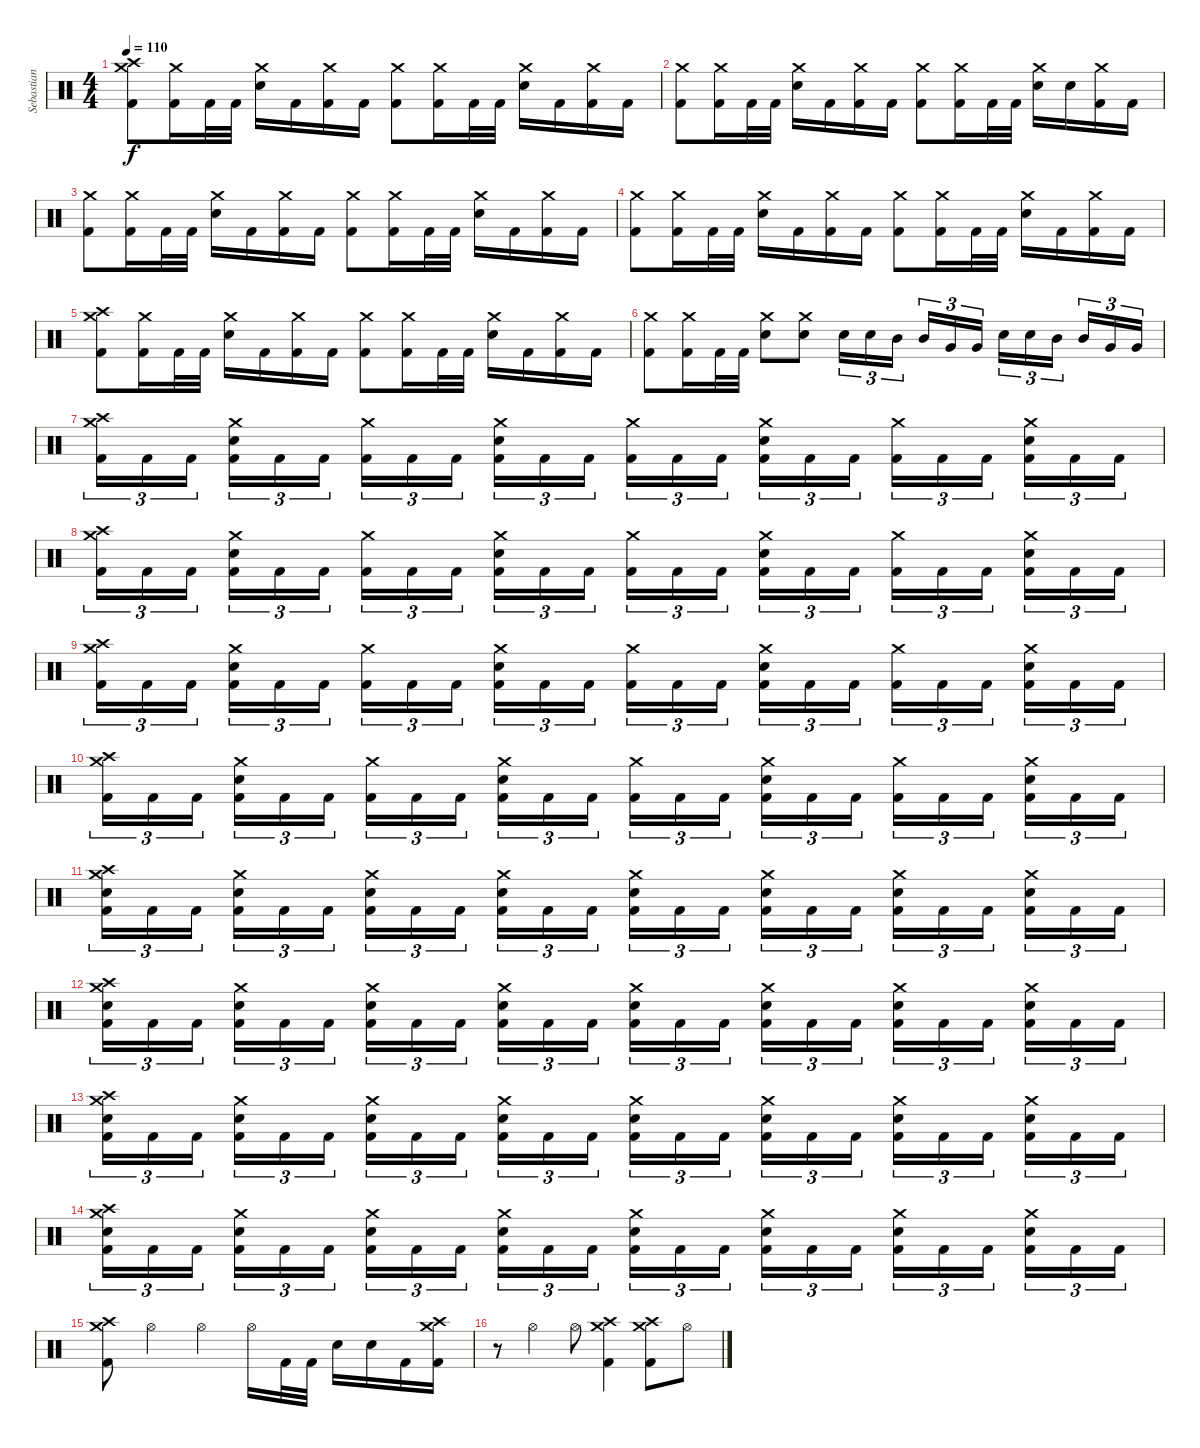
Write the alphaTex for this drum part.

\track ("Sebastian H." "Sebastian ") {instrument percussion}
\staff {score}
\articulation defaults
\ts (4 4)
\tempo 110
\clef neutral
\ks c
("Crash medium (hit)" "Crash high (hit)" "Kick (hit) 2").8{dy f} ("Crash medium (hit)" "Kick (hit) 2").16 "Kick (hit) 2".32 "Kick (hit) 2".32 ("Crash medium (hit)" "Electric Snare (hit)").16 "Kick (hit) 2".16 ("Crash medium (hit)" "Kick (hit) 2").16 "Kick (hit) 2".16 ("Crash medium (hit)" "Kick (hit) 2").8 ("Crash medium (hit)" "Kick (hit) 2").16 "Kick (hit) 2".32 "Kick (hit) 2".32 ("Crash medium (hit)" "Electric Snare (hit)").16 "Kick (hit) 2".16 ("Crash medium (hit)" "Kick (hit) 2").16 "Kick (hit) 2".16 |
("Crash medium (hit)" "Kick (hit) 2").8 ("Crash medium (hit)" "Kick (hit) 2").16 "Kick (hit) 2".32 "Kick (hit) 2".32 ("Crash medium (hit)" "Electric Snare (hit)").16 "Kick (hit) 2".16 ("Crash medium (hit)" "Kick (hit) 2").16 "Kick (hit) 2".16 ("Crash medium (hit)" "Kick (hit) 2").8 ("Crash medium (hit)" "Kick (hit) 2").16 "Kick (hit) 2".32 "Kick (hit) 2".32 ("Crash medium (hit)" "Electric Snare (hit)").16 "Electric Snare (hit)".16 ("Crash medium (hit)" "Kick (hit) 2").16 "Kick (hit) 2".16 |
("Crash medium (hit)" "Kick (hit) 2").8 ("Crash medium (hit)" "Kick (hit) 2").16 "Kick (hit) 2".32 "Kick (hit) 2".32 ("Crash medium (hit)" "Electric Snare (hit)").16 "Kick (hit) 2".16 ("Crash medium (hit)" "Kick (hit) 2").16 "Kick (hit) 2".16 ("Crash medium (hit)" "Kick (hit) 2").8 ("Crash medium (hit)" "Kick (hit) 2").16 "Kick (hit) 2".32 "Kick (hit) 2".32 ("Crash medium (hit)" "Electric Snare (hit)").16 "Kick (hit) 2".16 ("Crash medium (hit)" "Kick (hit) 2").16 "Kick (hit) 2".16 |
("Crash medium (hit)" "Kick (hit) 2").8 ("Crash medium (hit)" "Kick (hit) 2").16 "Kick (hit) 2".32 "Kick (hit) 2".32 ("Crash medium (hit)" "Electric Snare (hit)").16 "Kick (hit) 2".16 ("Crash medium (hit)" "Kick (hit) 2").16 "Kick (hit) 2".16 ("Crash medium (hit)" "Kick (hit) 2").8 ("Crash medium (hit)" "Kick (hit) 2").16 "Kick (hit) 2".32 "Kick (hit) 2".32 ("Crash medium (hit)" "Electric Snare (hit)").16 "Kick (hit) 2".16 ("Crash medium (hit)" "Kick (hit) 2").16 "Kick (hit) 2".16 |
("Crash medium (hit)" "Crash high (hit)" "Kick (hit) 2").8 ("Crash medium (hit)" "Kick (hit) 2").16 "Kick (hit) 2".32 "Kick (hit) 2".32 ("Crash medium (hit)" "Electric Snare (hit)").16 "Kick (hit) 2".16 ("Crash medium (hit)" "Kick (hit) 2").16 "Kick (hit) 2".16 ("Crash medium (hit)" "Kick (hit) 2").8 ("Crash medium (hit)" "Kick (hit) 2").16 "Kick (hit) 2".32 "Kick (hit) 2".32 ("Crash medium (hit)" "Electric Snare (hit)").16 "Kick (hit) 2".16 ("Crash medium (hit)" "Kick (hit) 2").16 "Kick (hit) 2".16 |
("Crash medium (hit)" "Kick (hit) 2").8 ("Crash medium (hit)" "Kick (hit) 2").16 "Kick (hit) 2".32 "Kick (hit) 2".32 ("Crash medium (hit)" "Electric Snare (hit)").8 ("Crash medium (hit)" "Electric Snare (hit)").8 "Electric Snare (hit)".16{tu (3 2)} "Electric Snare (hit)".16{tu (3 2)} "Mid Tom (hit)".16{tu (3 2) beam splitsecondary} "Mid Tom (hit)".16{tu (3 2)} "Very Low Tom (hit)".16{tu (3 2)} "Very Low Tom (hit)".16{tu (3 2)} "Electric Snare (hit)".16{tu (3 2)} "Electric Snare (hit)".16{tu (3 2)} "Mid Tom (hit)".16{tu (3 2) beam splitsecondary} "Mid Tom (hit)".16{tu (3 2)} "Very Low Tom (hit)".16{tu (3 2)} "Very Low Tom (hit)".16{tu (3 2)} |
("Kick (hit) 2" "Crash medium (hit)" "Crash high (hit)").16{tu (3 2)} "Kick (hit) 2".16{tu (3 2)} "Kick (hit) 2".16{tu (3 2) beam splitsecondary} ("Electric Snare (hit)" "Kick (hit) 2" "Crash medium (hit)").16{tu (3 2)} "Kick (hit) 2".16{tu (3 2)} "Kick (hit) 2".16{tu (3 2)} ("Kick (hit) 2" "Crash medium (hit)").16{tu (3 2)} "Kick (hit) 2".16{tu (3 2)} "Kick (hit) 2".16{tu (3 2) beam splitsecondary} ("Electric Snare (hit)" "Kick (hit) 2" "Crash medium (hit)").16{tu (3 2)} "Kick (hit) 2".16{tu (3 2)} "Kick (hit) 2".16{tu (3 2)} ("Kick (hit) 2" "Crash medium (hit)").16{tu (3 2)} "Kick (hit) 2".16{tu (3 2)} "Kick (hit) 2".16{tu (3 2) beam splitsecondary} ("Electric Snare (hit)" "Kick (hit) 2" "Crash medium (hit)").16{tu (3 2)} "Kick (hit) 2".16{tu (3 2)} "Kick (hit) 2".16{tu (3 2)} ("Kick (hit) 2" "Crash medium (hit)").16{tu (3 2)} "Kick (hit) 2".16{tu (3 2)} "Kick (hit) 2".16{tu (3 2) beam splitsecondary} ("Electric Snare (hit)" "Kick (hit) 2" "Crash medium (hit)").16{tu (3 2)} "Kick (hit) 2".16{tu (3 2)} "Kick (hit) 2".16{tu (3 2)} |
("Kick (hit) 2" "Crash medium (hit)" "Crash high (hit)").16{tu (3 2)} "Kick (hit) 2".16{tu (3 2)} "Kick (hit) 2".16{tu (3 2) beam splitsecondary} ("Electric Snare (hit)" "Kick (hit) 2" "Crash medium (hit)").16{tu (3 2)} "Kick (hit) 2".16{tu (3 2)} "Kick (hit) 2".16{tu (3 2)} ("Kick (hit) 2" "Crash medium (hit)").16{tu (3 2)} "Kick (hit) 2".16{tu (3 2)} "Kick (hit) 2".16{tu (3 2) beam splitsecondary} ("Electric Snare (hit)" "Kick (hit) 2" "Crash medium (hit)").16{tu (3 2)} "Kick (hit) 2".16{tu (3 2)} "Kick (hit) 2".16{tu (3 2)} ("Kick (hit) 2" "Crash medium (hit)").16{tu (3 2)} "Kick (hit) 2".16{tu (3 2)} "Kick (hit) 2".16{tu (3 2) beam splitsecondary} ("Electric Snare (hit)" "Kick (hit) 2" "Crash medium (hit)").16{tu (3 2)} "Kick (hit) 2".16{tu (3 2)} "Kick (hit) 2".16{tu (3 2)} ("Kick (hit) 2" "Crash medium (hit)").16{tu (3 2)} "Kick (hit) 2".16{tu (3 2)} "Kick (hit) 2".16{tu (3 2) beam splitsecondary} ("Electric Snare (hit)" "Kick (hit) 2" "Crash medium (hit)").16{tu (3 2)} "Kick (hit) 2".16{tu (3 2)} "Kick (hit) 2".16{tu (3 2)} |
("Kick (hit) 2" "Crash medium (hit)" "Crash high (hit)").16{tu (3 2)} "Kick (hit) 2".16{tu (3 2)} "Kick (hit) 2".16{tu (3 2) beam splitsecondary} ("Electric Snare (hit)" "Kick (hit) 2" "Crash medium (hit)").16{tu (3 2)} "Kick (hit) 2".16{tu (3 2)} "Kick (hit) 2".16{tu (3 2)} ("Kick (hit) 2" "Crash medium (hit)").16{tu (3 2)} "Kick (hit) 2".16{tu (3 2)} "Kick (hit) 2".16{tu (3 2) beam splitsecondary} ("Electric Snare (hit)" "Kick (hit) 2" "Crash medium (hit)").16{tu (3 2)} "Kick (hit) 2".16{tu (3 2)} "Kick (hit) 2".16{tu (3 2)} ("Kick (hit) 2" "Crash medium (hit)").16{tu (3 2)} "Kick (hit) 2".16{tu (3 2)} "Kick (hit) 2".16{tu (3 2) beam splitsecondary} ("Electric Snare (hit)" "Kick (hit) 2" "Crash medium (hit)").16{tu (3 2)} "Kick (hit) 2".16{tu (3 2)} "Kick (hit) 2".16{tu (3 2)} ("Kick (hit) 2" "Crash medium (hit)").16{tu (3 2)} "Kick (hit) 2".16{tu (3 2)} "Kick (hit) 2".16{tu (3 2) beam splitsecondary} ("Electric Snare (hit)" "Kick (hit) 2" "Crash medium (hit)").16{tu (3 2)} "Kick (hit) 2".16{tu (3 2)} "Kick (hit) 2".16{tu (3 2)} |
("Kick (hit) 2" "Crash medium (hit)" "Crash high (hit)").16{tu (3 2)} "Kick (hit) 2".16{tu (3 2)} "Kick (hit) 2".16{tu (3 2) beam splitsecondary} ("Electric Snare (hit)" "Kick (hit) 2" "Crash medium (hit)").16{tu (3 2)} "Kick (hit) 2".16{tu (3 2)} "Kick (hit) 2".16{tu (3 2)} ("Kick (hit) 2" "Crash medium (hit)").16{tu (3 2)} "Kick (hit) 2".16{tu (3 2)} "Kick (hit) 2".16{tu (3 2) beam splitsecondary} ("Electric Snare (hit)" "Kick (hit) 2" "Crash medium (hit)").16{tu (3 2)} "Kick (hit) 2".16{tu (3 2)} "Kick (hit) 2".16{tu (3 2)} ("Kick (hit) 2" "Crash medium (hit)").16{tu (3 2)} "Kick (hit) 2".16{tu (3 2)} "Kick (hit) 2".16{tu (3 2) beam splitsecondary} ("Electric Snare (hit)" "Kick (hit) 2" "Crash medium (hit)").16{tu (3 2)} "Kick (hit) 2".16{tu (3 2)} "Kick (hit) 2".16{tu (3 2)} ("Kick (hit) 2" "Crash medium (hit)").16{tu (3 2)} "Kick (hit) 2".16{tu (3 2)} "Kick (hit) 2".16{tu (3 2) beam splitsecondary} ("Electric Snare (hit)" "Kick (hit) 2" "Crash medium (hit)").16{tu (3 2)} "Kick (hit) 2".16{tu (3 2)} "Kick (hit) 2".16{tu (3 2)} |
("Kick (hit) 2" "Crash medium (hit)" "Crash high (hit)" "Electric Snare (hit)").16{tu (3 2)} "Kick (hit) 2".16{tu (3 2)} "Kick (hit) 2".16{tu (3 2) beam splitsecondary} ("Electric Snare (hit)" "Kick (hit) 2" "Crash medium (hit)").16{tu (3 2)} "Kick (hit) 2".16{tu (3 2)} "Kick (hit) 2".16{tu (3 2)} ("Kick (hit) 2" "Crash medium (hit)" "Electric Snare (hit)").16{tu (3 2)} "Kick (hit) 2".16{tu (3 2)} "Kick (hit) 2".16{tu (3 2) beam splitsecondary} ("Electric Snare (hit)" "Kick (hit) 2" "Crash medium (hit)").16{tu (3 2)} "Kick (hit) 2".16{tu (3 2)} "Kick (hit) 2".16{tu (3 2)} ("Kick (hit) 2" "Crash medium (hit)" "Electric Snare (hit)").16{tu (3 2)} "Kick (hit) 2".16{tu (3 2)} "Kick (hit) 2".16{tu (3 2) beam splitsecondary} ("Electric Snare (hit)" "Kick (hit) 2" "Crash medium (hit)").16{tu (3 2)} "Kick (hit) 2".16{tu (3 2)} "Kick (hit) 2".16{tu (3 2)} ("Kick (hit) 2" "Crash medium (hit)" "Electric Snare (hit)").16{tu (3 2)} "Kick (hit) 2".16{tu (3 2)} "Kick (hit) 2".16{tu (3 2) beam splitsecondary} ("Electric Snare (hit)" "Kick (hit) 2" "Crash medium (hit)").16{tu (3 2)} "Kick (hit) 2".16{tu (3 2)} "Kick (hit) 2".16{tu (3 2)} |
("Kick (hit) 2" "Crash medium (hit)" "Crash high (hit)" "Electric Snare (hit)").16{tu (3 2)} "Kick (hit) 2".16{tu (3 2)} "Kick (hit) 2".16{tu (3 2) beam splitsecondary} ("Electric Snare (hit)" "Kick (hit) 2" "Crash medium (hit)").16{tu (3 2)} "Kick (hit) 2".16{tu (3 2)} "Kick (hit) 2".16{tu (3 2)} ("Kick (hit) 2" "Crash medium (hit)" "Electric Snare (hit)").16{tu (3 2)} "Kick (hit) 2".16{tu (3 2)} "Kick (hit) 2".16{tu (3 2) beam splitsecondary} ("Electric Snare (hit)" "Kick (hit) 2" "Crash medium (hit)").16{tu (3 2)} "Kick (hit) 2".16{tu (3 2)} "Kick (hit) 2".16{tu (3 2)} ("Kick (hit) 2" "Crash medium (hit)" "Electric Snare (hit)").16{tu (3 2)} "Kick (hit) 2".16{tu (3 2)} "Kick (hit) 2".16{tu (3 2) beam splitsecondary} ("Electric Snare (hit)" "Kick (hit) 2" "Crash medium (hit)").16{tu (3 2)} "Kick (hit) 2".16{tu (3 2)} "Kick (hit) 2".16{tu (3 2)} ("Kick (hit) 2" "Crash medium (hit)" "Electric Snare (hit)").16{tu (3 2)} "Kick (hit) 2".16{tu (3 2)} "Kick (hit) 2".16{tu (3 2) beam splitsecondary} ("Electric Snare (hit)" "Kick (hit) 2" "Crash medium (hit)").16{tu (3 2)} "Kick (hit) 2".16{tu (3 2)} "Kick (hit) 2".16{tu (3 2)} |
("Kick (hit) 2" "Crash medium (hit)" "Crash high (hit)" "Electric Snare (hit)").16{tu (3 2)} "Kick (hit) 2".16{tu (3 2)} "Kick (hit) 2".16{tu (3 2) beam splitsecondary} ("Electric Snare (hit)" "Kick (hit) 2" "Crash medium (hit)").16{tu (3 2)} "Kick (hit) 2".16{tu (3 2)} "Kick (hit) 2".16{tu (3 2)} ("Kick (hit) 2" "Crash medium (hit)" "Electric Snare (hit)").16{tu (3 2)} "Kick (hit) 2".16{tu (3 2)} "Kick (hit) 2".16{tu (3 2) beam splitsecondary} ("Electric Snare (hit)" "Kick (hit) 2" "Crash medium (hit)").16{tu (3 2)} "Kick (hit) 2".16{tu (3 2)} "Kick (hit) 2".16{tu (3 2)} ("Kick (hit) 2" "Crash medium (hit)" "Electric Snare (hit)").16{tu (3 2)} "Kick (hit) 2".16{tu (3 2)} "Kick (hit) 2".16{tu (3 2) beam splitsecondary} ("Electric Snare (hit)" "Kick (hit) 2" "Crash medium (hit)").16{tu (3 2)} "Kick (hit) 2".16{tu (3 2)} "Kick (hit) 2".16{tu (3 2)} ("Kick (hit) 2" "Crash medium (hit)" "Electric Snare (hit)").16{tu (3 2)} "Kick (hit) 2".16{tu (3 2)} "Kick (hit) 2".16{tu (3 2) beam splitsecondary} ("Electric Snare (hit)" "Kick (hit) 2" "Crash medium (hit)").16{tu (3 2)} "Kick (hit) 2".16{tu (3 2)} "Kick (hit) 2".16{tu (3 2)} |
("Kick (hit) 2" "Crash medium (hit)" "Crash high (hit)" "Electric Snare (hit)").16{tu (3 2)} "Kick (hit) 2".16{tu (3 2)} "Kick (hit) 2".16{tu (3 2) beam splitsecondary} ("Electric Snare (hit)" "Kick (hit) 2" "Crash medium (hit)").16{tu (3 2)} "Kick (hit) 2".16{tu (3 2)} "Kick (hit) 2".16{tu (3 2)} ("Kick (hit) 2" "Crash medium (hit)" "Electric Snare (hit)").16{tu (3 2)} "Kick (hit) 2".16{tu (3 2)} "Kick (hit) 2".16{tu (3 2) beam splitsecondary} ("Electric Snare (hit)" "Kick (hit) 2" "Crash medium (hit)").16{tu (3 2)} "Kick (hit) 2".16{tu (3 2)} "Kick (hit) 2".16{tu (3 2)} ("Kick (hit) 2" "Crash medium (hit)" "Electric Snare (hit)").16{tu (3 2)} "Kick (hit) 2".16{tu (3 2)} "Kick (hit) 2".16{tu (3 2) beam splitsecondary} ("Electric Snare (hit)" "Kick (hit) 2" "Crash medium (hit)").16{tu (3 2)} "Kick (hit) 2".16{tu (3 2)} "Kick (hit) 2".16{tu (3 2)} ("Kick (hit) 2" "Crash medium (hit)" "Electric Snare (hit)").16{tu (3 2)} "Kick (hit) 2".16{tu (3 2)} "Kick (hit) 2".16{tu (3 2) beam splitsecondary} ("Electric Snare (hit)" "Kick (hit) 2" "Crash medium (hit)").16{tu (3 2)} "Kick (hit) 2".16{tu (3 2)} "Kick (hit) 2".16{tu (3 2)} |
("Kick (hit) 2" "Crash medium (hit)" "Crash high (hit)").8 "Hi-Hat (open)".4 "Hi-Hat (open)".4 "Hi-Hat (open)".16 "Kick (hit) 2".32 "Kick (hit) 2".32 "Electric Snare (hit)".16 "Electric Snare (hit)".16 "Kick (hit) 2".16 ("Kick (hit) 2" "Crash medium (hit)" "Crash high (hit)").16 |
r.8 "Hi-Hat (open)".4 "Hi-Hat (open)".8 ("Kick (hit) 2" "Crash medium (hit)" "Crash high (hit)").4 ("Kick (hit) 2" "Crash medium (hit)" "Crash high (hit)").8 "Hi-Hat (open)".8
